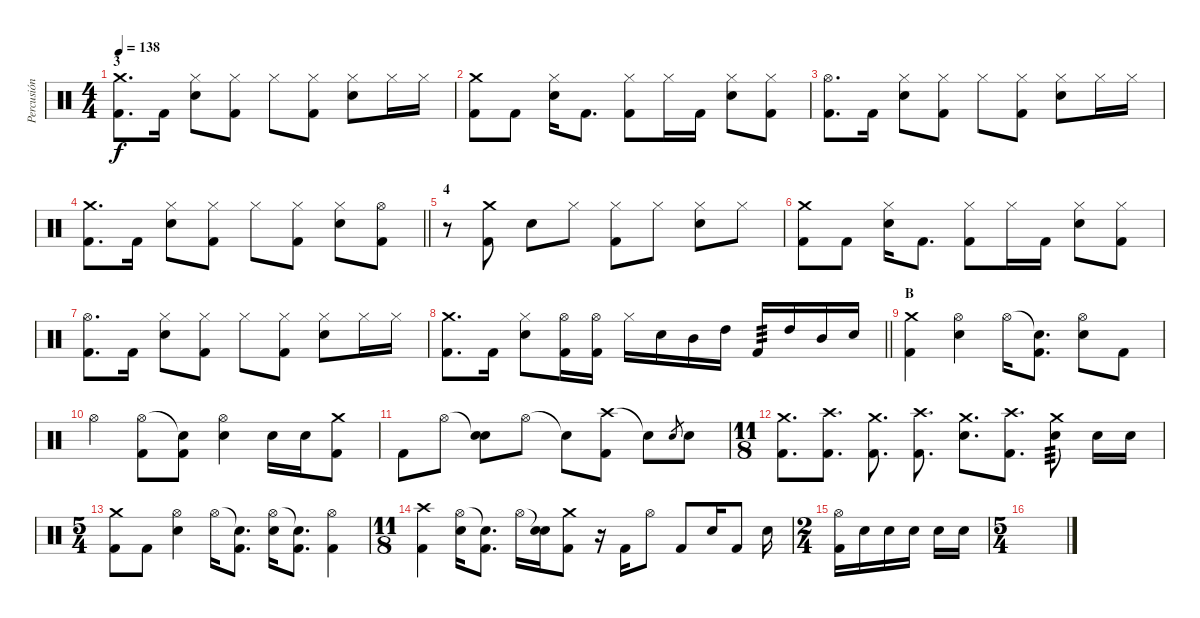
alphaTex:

\track ("Percusión" "Percusión") {instrument percussion}
\staff {score}
\articulation defaults
\ts (4 4)
\section ("" "3")
\tempo 138
\clef neutral
\ks c
("Crash medium (hit)" "Kick (hit) 2").8{d dy f} "Kick (hit) 2".16 ("Hi-Hat (closed)" "Electric Snare (hit)").8 ("Hi-Hat (closed)" "Kick (hit) 2").8 "Hi-Hat (closed)".8 ("Hi-Hat (closed)" "Kick (hit) 2").8 ("Hi-Hat (closed)" "Electric Snare (hit)").8 "Hi-Hat (closed)".16 "Hi-Hat (closed)".16 |
("Crash medium (hit)" "Kick (hit) 2").8 "Kick (hit) 2".8 ("Hi-Hat (closed)" "Electric Snare (hit)").16 "Kick (hit) 2".8{d} ("Hi-Hat (closed)" "Kick (hit) 2").8 "Hi-Hat (closed)".16 "Kick (hit) 2".16 ("Hi-Hat (closed)" "Electric Snare (hit)").8 ("Hi-Hat (closed)" "Kick (hit) 2").8 |
("Hi-Hat (open)" "Kick (hit) 2").8{d} "Kick (hit) 2".16 ("Hi-Hat (closed)" "Electric Snare (hit)").8 ("Hi-Hat (closed)" "Kick (hit) 2").8 "Hi-Hat (closed)".8 ("Hi-Hat (closed)" "Kick (hit) 2").8 ("Hi-Hat (closed)" "Electric Snare (hit)").8 "Hi-Hat (closed)".16 "Hi-Hat (closed)".16 |
\barLineRight lightlight
("Crash medium (hit)" "Kick (hit) 2").8{d} "Kick (hit) 2".16 ("Hi-Hat (closed)" "Electric Snare (hit)").8 ("Hi-Hat (closed)" "Kick (hit) 2").8 "Hi-Hat (closed)".8 ("Hi-Hat (closed)" "Kick (hit) 2").8 ("Hi-Hat (closed)" "Electric Snare (hit)").8 ("Hi-Hat (open)" "Kick (hit) 2").8 |
\section ("" "4")
r.8 ("Crash medium (hit)" "Kick (hit) 2").8 "Electric Snare (hit)".8 "Hi-Hat (closed)".8 ("Hi-Hat (closed)" "Kick (hit) 2").8 "Hi-Hat (closed)".8 ("Hi-Hat (closed)" "Electric Snare (hit)").8 "Hi-Hat (closed)".8 |
("Crash medium (hit)" "Kick (hit) 2").8 "Kick (hit) 2".8 ("Hi-Hat (closed)" "Electric Snare (hit)").16 "Kick (hit) 2".8{d} ("Hi-Hat (closed)" "Kick (hit) 2").8 "Hi-Hat (closed)".16 "Kick (hit) 2".16 ("Hi-Hat (closed)" "Electric Snare (hit)").8 ("Hi-Hat (closed)" "Kick (hit) 2").8 |
("Hi-Hat (open)" "Kick (hit) 2").8{d} "Kick (hit) 2".16 ("Hi-Hat (closed)" "Electric Snare (hit)").8 ("Hi-Hat (closed)" "Kick (hit) 2").8 "Hi-Hat (closed)".8 ("Hi-Hat (closed)" "Kick (hit) 2").8 ("Hi-Hat (closed)" "Electric Snare (hit)").8 "Hi-Hat (closed)".16 "Hi-Hat (closed)".16 |
\barLineRight lightlight
("Crash medium (hit)" "Kick (hit) 2").8{d} "Kick (hit) 2".16 ("Hi-Hat (closed)" "Electric Snare (hit)").8 ("Hi-Hat (open)" "Kick (hit) 2").16 ("Hi-Hat (open)" "Kick (hit) 2").16 "Hi-Hat (closed)".16 "Electric Snare (hit)".16 "Mid Tom (hit)".16 "High Tom (hit)".16 "Kick (hit) 2".16{tp 3} "High Tom (hit)".16 "Mid Tom (hit)".16 "Electric Snare (hit)".16 |
\section ("" "B")
("Crash medium (hit)" "Kick (hit) 2").4 ("Hi-Hat (open)" "Electric Snare (hit)").4 "Hi-Hat (open)".16 ("Snare (hit)"{t} "Kick (hit) 2").8{d} ("Hi-Hat (open)" "Electric Snare (hit)").8 "Kick (hit) 2".8 |
"Hi-Hat (open)".4 ("Hi-Hat (open)" "Kick (hit) 2").8 ("Snare (hit)"{t} "Kick (hit) 2").8 ("Hi-Hat (open)" "Electric Snare (hit)").4 "Electric Snare (hit)".16 "Electric Snare (hit)".16 ("Crash medium (hit)" "Kick (hit) 2").8 |
"Kick (hit) 2".8 "Hi-Hat (open)".8 ("Snare (hit)"{t} "Electric Snare (hit)").8 "Hi-Hat (open)".8 "Snare (hit)"{t}.8 ("Crash high (hit)" "Kick (hit) 2").8 "Snare (hit)"{t}.8 "Electric Snare (hit)".8{gr} "Electric Snare (hit)".8 |
\ts (11 8)
("Crash medium (hit)" "Kick (hit) 2").8{d} ("Crash high (hit)" "Kick (hit) 2").8{d} ("Crash medium (hit)" "Kick (hit) 2").8{d} ("Crash high (hit)" "Kick (hit) 2").8{d} ("Crash medium (hit)" "Electric Snare (hit)").8{d} ("Crash high (hit)" "Kick (hit) 2").8{d} ("Crash medium (hit)" "Electric Snare (hit)").8{tp 3} "Electric Snare (hit)".16 "Electric Snare (hit)".16 |
\ts (5 4)
("Crash medium (hit)" "Kick (hit) 2").8 "Kick (hit) 2".8 ("Hi-Hat (open)" "Electric Snare (hit)").4 "Hi-Hat (open)".16 ("Snare (hit)"{t} "Kick (hit) 2").8{d} ("Hi-Hat (open)" "Electric Snare (hit)").16 ("Snare (hit)"{t} "Kick (hit) 2").8{d} ("Hi-Hat (open)" "Kick (hit) 2").4 |
\ts (11 8)
("Crash high (hit)" "Kick (hit) 2").4 ("Hi-Hat (open)" "Electric Snare (hit)").16 ("Snare (hit)"{t} "Kick (hit) 2").8{d} "Hi-Hat (open)".16 ("Snare (hit)"{t} "Electric Snare (hit)").16 ("Crash medium (hit)" "Kick (hit) 2").8 r.16 "Kick (hit) 2".16 "Hi-Hat (open)".8 "Kick (hit) 2".8 "Electric Snare (hit)".16 "Kick (hit) 2".8 "Electric Snare (hit)".16 |
\ts (2 4)
("Hi-Hat (open)" "Kick (hit) 2").16 "Electric Snare (hit)".16 "Electric Snare (hit)".16 "Electric Snare (hit)".16 "Electric Snare (hit)".16 "Electric Snare (hit)".16 |
\ts (5 4)
